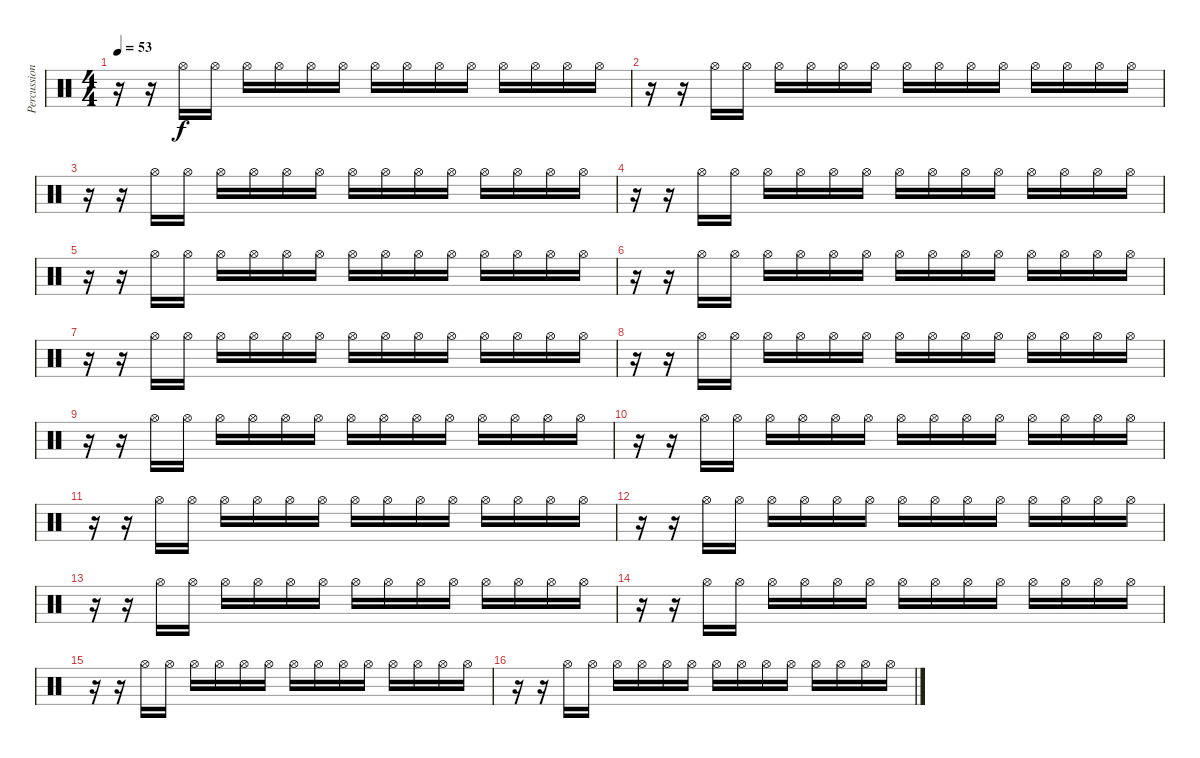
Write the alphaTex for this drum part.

\track ("Percussion" "Percussion") {instrument percussion}
\staff {score}
\articulation defaults
\ts (4 4)
\tempo 53
\clef neutral
\ks c
r.16{dy f volume 6} r.16{volume 6} "Hi-Hat (open)".16{volume 6} "Hi-Hat (open)".16{volume 6} "Hi-Hat (open)".16{volume 6} "Hi-Hat (open)".16{volume 6} "Hi-Hat (open)".16{volume 6} "Hi-Hat (open)".16{volume 6} "Hi-Hat (open)".16{volume 6} "Hi-Hat (open)".16{volume 6} "Hi-Hat (open)".16{volume 6} "Hi-Hat (open)".16{volume 6} "Hi-Hat (open)".16{volume 6} "Hi-Hat (open)".16{volume 6} "Hi-Hat (open)".16{volume 6} "Hi-Hat (open)".16{volume 6} |
r.16{volume 6} r.16{volume 6} "Hi-Hat (open)".16{volume 6} "Hi-Hat (open)".16{volume 6} "Hi-Hat (open)".16{volume 6} "Hi-Hat (open)".16{volume 6} "Hi-Hat (open)".16{volume 6} "Hi-Hat (open)".16{volume 6} "Hi-Hat (open)".16{volume 6} "Hi-Hat (open)".16{volume 6} "Hi-Hat (open)".16{volume 6} "Hi-Hat (open)".16{volume 6} "Hi-Hat (open)".16{volume 6} "Hi-Hat (open)".16{volume 6} "Hi-Hat (open)".16{volume 6} "Hi-Hat (open)".16{volume 6} |
r.16{volume 6} r.16{volume 6} "Hi-Hat (open)".16{volume 6} "Hi-Hat (open)".16{volume 6} "Hi-Hat (open)".16{volume 6} "Hi-Hat (open)".16{volume 6} "Hi-Hat (open)".16{volume 6} "Hi-Hat (open)".16{volume 6} "Hi-Hat (open)".16{volume 6} "Hi-Hat (open)".16{volume 6} "Hi-Hat (open)".16{volume 6} "Hi-Hat (open)".16{volume 6} "Hi-Hat (open)".16{volume 6} "Hi-Hat (open)".16{volume 6} "Hi-Hat (open)".16{volume 6} "Hi-Hat (open)".16{volume 6} |
r.16{volume 6} r.16{volume 6} "Hi-Hat (open)".16{volume 6} "Hi-Hat (open)".16{volume 6} "Hi-Hat (open)".16{volume 6} "Hi-Hat (open)".16{volume 6} "Hi-Hat (open)".16{volume 6} "Hi-Hat (open)".16{volume 6} "Hi-Hat (open)".16{volume 6} "Hi-Hat (open)".16{volume 6} "Hi-Hat (open)".16{volume 6} "Hi-Hat (open)".16{volume 6} "Hi-Hat (open)".16{volume 6} "Hi-Hat (open)".16{volume 6} "Hi-Hat (open)".16{volume 6} "Hi-Hat (open)".16{volume 6} |
r.16{volume 6} r.16{volume 6} "Hi-Hat (open)".16{volume 6} "Hi-Hat (open)".16{volume 6} "Hi-Hat (open)".16{volume 6} "Hi-Hat (open)".16{volume 6} "Hi-Hat (open)".16{volume 6} "Hi-Hat (open)".16{volume 6} "Hi-Hat (open)".16{volume 6} "Hi-Hat (open)".16{volume 6} "Hi-Hat (open)".16{volume 6} "Hi-Hat (open)".16{volume 6} "Hi-Hat (open)".16{volume 6} "Hi-Hat (open)".16{volume 6} "Hi-Hat (open)".16{volume 6} "Hi-Hat (open)".16{volume 6} |
r.16{volume 6} r.16{volume 6} "Hi-Hat (open)".16{volume 6} "Hi-Hat (open)".16{volume 6} "Hi-Hat (open)".16{volume 6} "Hi-Hat (open)".16{volume 6} "Hi-Hat (open)".16{volume 6} "Hi-Hat (open)".16{volume 6} "Hi-Hat (open)".16{volume 6} "Hi-Hat (open)".16{volume 6} "Hi-Hat (open)".16{volume 6} "Hi-Hat (open)".16{volume 6} "Hi-Hat (open)".16{volume 6} "Hi-Hat (open)".16{volume 6} "Hi-Hat (open)".16{volume 6} "Hi-Hat (open)".16{volume 6} |
r.16{volume 6} r.16{volume 6} "Hi-Hat (open)".16{volume 6} "Hi-Hat (open)".16{volume 6} "Hi-Hat (open)".16{volume 6} "Hi-Hat (open)".16{volume 6} "Hi-Hat (open)".16{volume 6} "Hi-Hat (open)".16{volume 6} "Hi-Hat (open)".16{volume 6} "Hi-Hat (open)".16{volume 6} "Hi-Hat (open)".16{volume 6} "Hi-Hat (open)".16{volume 6} "Hi-Hat (open)".16{volume 6} "Hi-Hat (open)".16{volume 6} "Hi-Hat (open)".16{volume 6} "Hi-Hat (open)".16{volume 6} |
r.16{volume 6} r.16{volume 6} "Hi-Hat (open)".16{volume 6} "Hi-Hat (open)".16{volume 6} "Hi-Hat (open)".16{volume 6} "Hi-Hat (open)".16{volume 6} "Hi-Hat (open)".16{volume 6} "Hi-Hat (open)".16{volume 6} "Hi-Hat (open)".16{volume 6} "Hi-Hat (open)".16{volume 6} "Hi-Hat (open)".16{volume 6} "Hi-Hat (open)".16{volume 6} "Hi-Hat (open)".16{volume 6} "Hi-Hat (open)".16{volume 6} "Hi-Hat (open)".16{volume 6} "Hi-Hat (open)".16{volume 6} |
r.16{volume 6} r.16{volume 6} "Hi-Hat (open)".16{volume 6} "Hi-Hat (open)".16{volume 6} "Hi-Hat (open)".16{volume 6} "Hi-Hat (open)".16{volume 6} "Hi-Hat (open)".16{volume 6} "Hi-Hat (open)".16{volume 6} "Hi-Hat (open)".16{volume 6} "Hi-Hat (open)".16{volume 6} "Hi-Hat (open)".16{volume 6} "Hi-Hat (open)".16{volume 6} "Hi-Hat (open)".16{volume 6} "Hi-Hat (open)".16{volume 6} "Hi-Hat (open)".16{volume 6} "Hi-Hat (open)".16{volume 6} |
r.16{volume 6} r.16{volume 6} "Hi-Hat (open)".16{volume 6} "Hi-Hat (open)".16{volume 6} "Hi-Hat (open)".16{volume 6} "Hi-Hat (open)".16{volume 6} "Hi-Hat (open)".16{volume 6} "Hi-Hat (open)".16{volume 6} "Hi-Hat (open)".16{volume 6} "Hi-Hat (open)".16{volume 6} "Hi-Hat (open)".16{volume 6} "Hi-Hat (open)".16{volume 6} "Hi-Hat (open)".16{volume 6} "Hi-Hat (open)".16{volume 6} "Hi-Hat (open)".16{volume 6} "Hi-Hat (open)".16{volume 6} |
r.16{volume 6} r.16{volume 6} "Hi-Hat (open)".16{volume 6} "Hi-Hat (open)".16{volume 6} "Hi-Hat (open)".16{volume 6} "Hi-Hat (open)".16{volume 6} "Hi-Hat (open)".16{volume 6} "Hi-Hat (open)".16{volume 6} "Hi-Hat (open)".16{volume 6} "Hi-Hat (open)".16{volume 6} "Hi-Hat (open)".16{volume 6} "Hi-Hat (open)".16{volume 6} "Hi-Hat (open)".16{volume 6} "Hi-Hat (open)".16{volume 6} "Hi-Hat (open)".16{volume 6} "Hi-Hat (open)".16{volume 6} |
r.16{volume 6} r.16{volume 6} "Hi-Hat (open)".16{volume 6} "Hi-Hat (open)".16{volume 6} "Hi-Hat (open)".16{volume 6} "Hi-Hat (open)".16{volume 6} "Hi-Hat (open)".16{volume 6} "Hi-Hat (open)".16{volume 6} "Hi-Hat (open)".16{volume 6} "Hi-Hat (open)".16{volume 6} "Hi-Hat (open)".16{volume 6} "Hi-Hat (open)".16{volume 6} "Hi-Hat (open)".16{volume 6} "Hi-Hat (open)".16{volume 6} "Hi-Hat (open)".16{volume 6} "Hi-Hat (open)".16{volume 6} |
r.16{volume 6} r.16{volume 6} "Hi-Hat (open)".16{volume 6} "Hi-Hat (open)".16{volume 6} "Hi-Hat (open)".16{volume 6} "Hi-Hat (open)".16{volume 6} "Hi-Hat (open)".16{volume 6} "Hi-Hat (open)".16{volume 6} "Hi-Hat (open)".16{volume 6} "Hi-Hat (open)".16{volume 6} "Hi-Hat (open)".16{volume 6} "Hi-Hat (open)".16{volume 6} "Hi-Hat (open)".16{volume 6} "Hi-Hat (open)".16{volume 6} "Hi-Hat (open)".16{volume 6} "Hi-Hat (open)".16{volume 6} |
r.16{volume 6} r.16{volume 6} "Hi-Hat (open)".16{volume 6} "Hi-Hat (open)".16{volume 6} "Hi-Hat (open)".16{volume 6} "Hi-Hat (open)".16{volume 6} "Hi-Hat (open)".16{volume 6} "Hi-Hat (open)".16{volume 6} "Hi-Hat (open)".16{volume 6} "Hi-Hat (open)".16{volume 6} "Hi-Hat (open)".16{volume 6} "Hi-Hat (open)".16{volume 6} "Hi-Hat (open)".16{volume 6} "Hi-Hat (open)".16{volume 6} "Hi-Hat (open)".16{volume 6} "Hi-Hat (open)".16{volume 6} |
r.16{volume 6} r.16{volume 6} "Hi-Hat (open)".16{volume 6} "Hi-Hat (open)".16{volume 6} "Hi-Hat (open)".16{volume 6} "Hi-Hat (open)".16{volume 6} "Hi-Hat (open)".16{volume 6} "Hi-Hat (open)".16{volume 6} "Hi-Hat (open)".16{volume 6} "Hi-Hat (open)".16{volume 6} "Hi-Hat (open)".16{volume 6} "Hi-Hat (open)".16{volume 6} "Hi-Hat (open)".16{volume 6} "Hi-Hat (open)".16{volume 6} "Hi-Hat (open)".16{volume 6} "Hi-Hat (open)".16{volume 6} |
r.16{volume 6} r.16{volume 6} "Hi-Hat (open)".16{volume 6} "Hi-Hat (open)".16{volume 6} "Hi-Hat (open)".16{volume 6} "Hi-Hat (open)".16{volume 6} "Hi-Hat (open)".16{volume 6} "Hi-Hat (open)".16{volume 6} "Hi-Hat (open)".16{volume 6} "Hi-Hat (open)".16{volume 6} "Hi-Hat (open)".16{volume 6} "Hi-Hat (open)".16{volume 6} "Hi-Hat (open)".16{volume 6} "Hi-Hat (open)".16{volume 6} "Hi-Hat (open)".16{volume 6} "Hi-Hat (open)".16{volume 6}
